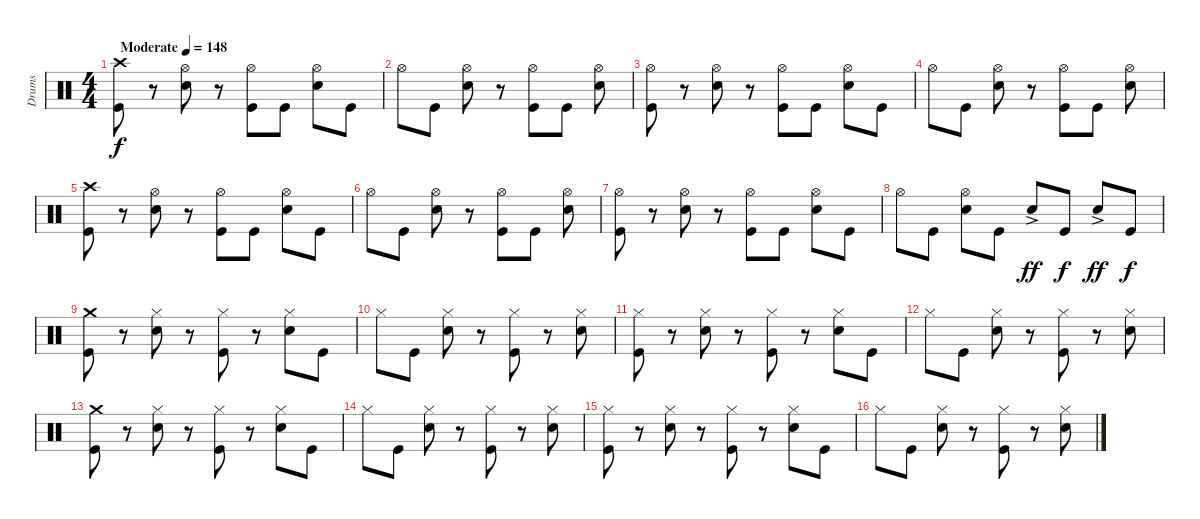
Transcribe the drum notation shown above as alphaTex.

\track ("Drums" "Drums") {instrument percussion}
\staff {score}
\articulation defaults
\ts (4 4)
\tempo (148 "Moderate")
\clef neutral
\ks c
("Crash high (hit)" "Kick (hit)").8{dy f} r.8 ("Hi-Hat (open)" "Electric Snare (hit)").8 r.8 ("Hi-Hat (open)" "Kick (hit)").8 "Kick (hit)".8 ("Hi-Hat (open)" "Electric Snare (hit)").8 "Kick (hit)".8 |
"Hi-Hat (open)".8 "Kick (hit)".8 ("Hi-Hat (open)" "Electric Snare (hit)").8 r.8 ("Hi-Hat (open)" "Kick (hit)").8 "Kick (hit)".8 ("Hi-Hat (open)" "Electric Snare (hit)").8 |
("Hi-Hat (open)" "Kick (hit)").8 r.8 ("Hi-Hat (open)" "Electric Snare (hit)").8 r.8 ("Hi-Hat (open)" "Kick (hit)").8 "Kick (hit)".8 ("Hi-Hat (open)" "Electric Snare (hit)").8 "Kick (hit)".8 |
"Hi-Hat (open)".8 "Kick (hit)".8 ("Hi-Hat (open)" "Electric Snare (hit)").8 r.8 ("Hi-Hat (open)" "Kick (hit)").8 "Kick (hit)".8 ("Hi-Hat (open)" "Electric Snare (hit)").8 |
("Crash high (hit)" "Kick (hit)").8 r.8 ("Hi-Hat (open)" "Electric Snare (hit)").8 r.8 ("Hi-Hat (open)" "Kick (hit)").8 "Kick (hit)".8 ("Hi-Hat (open)" "Electric Snare (hit)").8 "Kick (hit)".8 |
"Hi-Hat (open)".8 "Kick (hit)".8 ("Hi-Hat (open)" "Electric Snare (hit)").8 r.8 ("Hi-Hat (open)" "Kick (hit)").8 "Kick (hit)".8 ("Hi-Hat (open)" "Electric Snare (hit)").8 |
("Hi-Hat (open)" "Kick (hit)").8 r.8 ("Hi-Hat (open)" "Electric Snare (hit)").8 r.8 ("Hi-Hat (open)" "Kick (hit)").8 "Kick (hit)".8 ("Hi-Hat (open)" "Electric Snare (hit)").8 "Kick (hit)".8 |
"Hi-Hat (open)".8 "Kick (hit)".8 ("Hi-Hat (open)" "Electric Snare (hit)").8 "Kick (hit)".8 "Electric Snare (hit)"{ac}.8{dy ff} "Kick (hit)".8{dy f} "Electric Snare (hit)"{ac}.8{dy ff} "Kick (hit)".8{dy f} |
("Crash medium (hit)" "Kick (hit)").8 r.8 ("Hi-Hat (closed)" "Electric Snare (hit)").8 r.8 ("Hi-Hat (closed)" "Kick (hit)").8 r.8 ("Hi-Hat (closed)" "Electric Snare (hit)").8 "Kick (hit)".8 |
"Hi-Hat (closed)".8 "Kick (hit)".8 ("Hi-Hat (closed)" "Electric Snare (hit)").8 r.8 ("Hi-Hat (closed)" "Kick (hit)").8 r.8 ("Hi-Hat (closed)" "Electric Snare (hit)").8 |
("Hi-Hat (closed)" "Kick (hit)").8 r.8 ("Hi-Hat (closed)" "Electric Snare (hit)").8 r.8 ("Hi-Hat (closed)" "Kick (hit)").8 r.8 ("Hi-Hat (closed)" "Electric Snare (hit)").8 "Kick (hit)".8 |
"Hi-Hat (closed)".8 "Kick (hit)".8 ("Hi-Hat (closed)" "Electric Snare (hit)").8 r.8 ("Hi-Hat (closed)" "Kick (hit)").8 r.8 ("Hi-Hat (closed)" "Electric Snare (hit)").8 |
("Crash medium (hit)" "Kick (hit)").8 r.8 ("Hi-Hat (closed)" "Electric Snare (hit)").8 r.8 ("Hi-Hat (closed)" "Kick (hit)").8 r.8 ("Hi-Hat (closed)" "Electric Snare (hit)").8 "Kick (hit)".8 |
"Hi-Hat (closed)".8 "Kick (hit)".8 ("Hi-Hat (closed)" "Electric Snare (hit)").8 r.8 ("Hi-Hat (closed)" "Kick (hit)").8 r.8 ("Hi-Hat (closed)" "Electric Snare (hit)").8 |
("Hi-Hat (closed)" "Kick (hit)").8 r.8 ("Hi-Hat (closed)" "Electric Snare (hit)").8 r.8 ("Hi-Hat (closed)" "Kick (hit)").8 r.8 ("Hi-Hat (closed)" "Electric Snare (hit)").8 "Kick (hit)".8 |
"Hi-Hat (closed)".8 "Kick (hit)".8 ("Hi-Hat (closed)" "Electric Snare (hit)").8 r.8 ("Hi-Hat (closed)" "Kick (hit)").8 r.8 ("Hi-Hat (closed)" "Electric Snare (hit)").8
